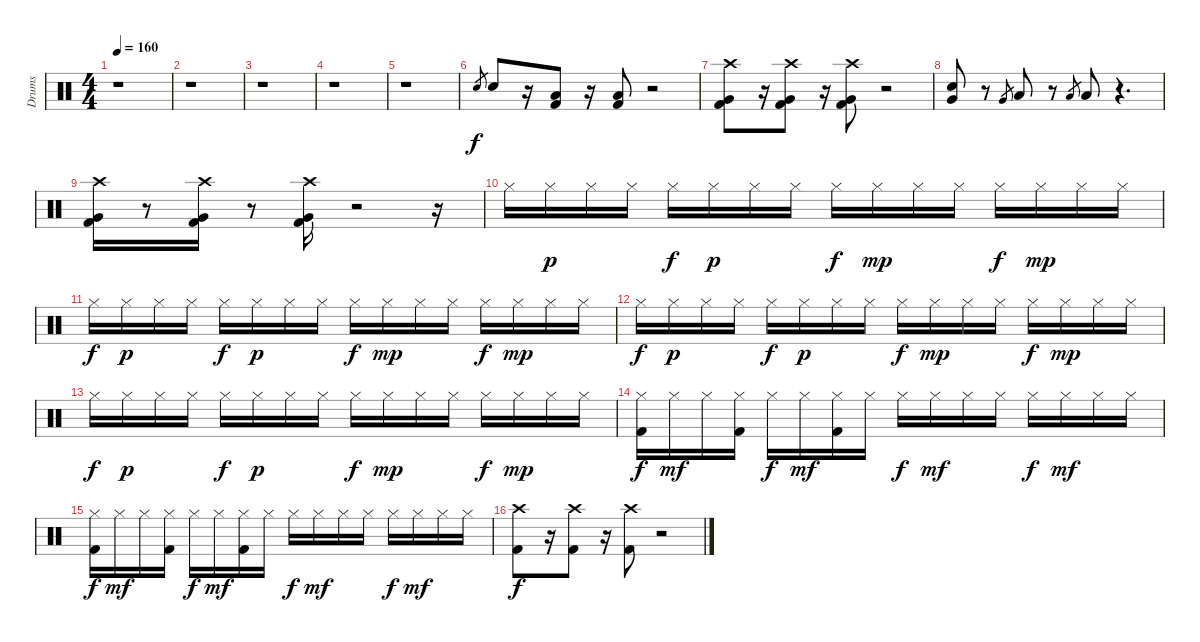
\track ("Drums" "Drums") {instrument percussion}
\staff {score}
\articulation defaults
\ts (4 4)
\tempo 160
\clef neutral
\ks c
r.1{dy f} |
r.1 |
r.1 |
r.1 |
r.1 |
"Snare (hit) 2".8{gr} "Snare (hit) 2".8 r.16 ("Kick (hit) 2" "Low Tom (hit)").8 r.16 ("Kick (hit) 2" "Low Floor Tom (hit)").8 r.2 |
("Kick (hit) 2" "Very Low Tom (hit)" "Crash high (hit)").8 r.16 ("Kick (hit) 2" "Very Low Tom (hit)" "Crash high (hit)").8 r.16 ("Kick (hit) 2" "Very Low Tom (hit)" "Crash high (hit)").8 r.2 |
("Snare (hit) 2" "Very Low Tom (hit)").8 r.8 "Very Low Tom (hit)".8{gr} "Low Tom (hit)".8 r.8 "Low Floor Tom (hit)".8{gr} "Low Tom (hit)".8 r.4{d} |
("Very Low Tom (hit)" "Crash high (hit)" "Kick (hit) 2").16 r.8 ("Crash high (hit)" "Kick (hit) 2" "Very Low Tom (hit)").16 r.8 ("Crash high (hit)" "Kick (hit) 2" "Very Low Tom (hit)").16 r.2 r.16 |
"Hi-Hat (closed)".16 "Hi-Hat (closed)".16{dy p} "Hi-Hat (closed)".16 "Hi-Hat (closed)".16 "Hi-Hat (closed)".16{dy f} "Hi-Hat (closed)".16{dy p} "Hi-Hat (closed)".16 "Hi-Hat (closed)".16 "Hi-Hat (closed)".16{dy f} "Hi-Hat (closed)".16{dy mp} "Hi-Hat (closed)".16 "Hi-Hat (closed)".16 "Hi-Hat (closed)".16{dy f} "Hi-Hat (closed)".16{dy mp} "Hi-Hat (closed)".16 "Hi-Hat (closed)".16 |
"Hi-Hat (closed)".16{dy f} "Hi-Hat (closed)".16{dy p} "Hi-Hat (closed)".16 "Hi-Hat (closed)".16 "Hi-Hat (closed)".16{dy f} "Hi-Hat (closed)".16{dy p} "Hi-Hat (closed)".16 "Hi-Hat (closed)".16 "Hi-Hat (closed)".16{dy f} "Hi-Hat (closed)".16{dy mp} "Hi-Hat (closed)".16 "Hi-Hat (closed)".16 "Hi-Hat (closed)".16{dy f} "Hi-Hat (closed)".16{dy mp} "Hi-Hat (closed)".16 "Hi-Hat (closed)".16 |
"Hi-Hat (closed)".16{dy f} "Hi-Hat (closed)".16{dy p} "Hi-Hat (closed)".16 "Hi-Hat (closed)".16 "Hi-Hat (closed)".16{dy f} "Hi-Hat (closed)".16{dy p} "Hi-Hat (closed)".16 "Hi-Hat (closed)".16 "Hi-Hat (closed)".16{dy f} "Hi-Hat (closed)".16{dy mp} "Hi-Hat (closed)".16 "Hi-Hat (closed)".16 "Hi-Hat (closed)".16{dy f} "Hi-Hat (closed)".16{dy mp} "Hi-Hat (closed)".16 "Hi-Hat (closed)".16 |
"Hi-Hat (closed)".16{dy f} "Hi-Hat (closed)".16{dy p} "Hi-Hat (closed)".16 "Hi-Hat (closed)".16 "Hi-Hat (closed)".16{dy f} "Hi-Hat (closed)".16{dy p} "Hi-Hat (closed)".16 "Hi-Hat (closed)".16 "Hi-Hat (closed)".16{dy f} "Hi-Hat (closed)".16{dy mp} "Hi-Hat (closed)".16 "Hi-Hat (closed)".16 "Hi-Hat (closed)".16{dy f} "Hi-Hat (closed)".16{dy mp} "Hi-Hat (closed)".16 "Hi-Hat (closed)".16 |
("Kick (hit) 2" "Hi-Hat (closed)").16{dy f} "Hi-Hat (closed)".16{dy mf} "Hi-Hat (closed)".16 ("Kick (hit) 2" "Hi-Hat (closed)").16 "Hi-Hat (closed)".16{dy f} "Hi-Hat (closed)".16{dy mf} ("Kick (hit) 2" "Hi-Hat (closed)").16 "Hi-Hat (closed)".16 "Hi-Hat (closed)".16{dy f} "Hi-Hat (closed)".16{dy mf} "Hi-Hat (closed)".16 "Hi-Hat (closed)".16 "Hi-Hat (closed)".16{dy f} "Hi-Hat (closed)".16{dy mf} "Hi-Hat (closed)".16 "Hi-Hat (closed)".16 |
("Kick (hit) 2" "Hi-Hat (closed)").16{dy f} "Hi-Hat (closed)".16{dy mf} "Hi-Hat (closed)".16 ("Kick (hit) 2" "Hi-Hat (closed)").16 "Hi-Hat (closed)".16{dy f} "Hi-Hat (closed)".16{dy mf} ("Kick (hit) 2" "Hi-Hat (closed)").16 "Hi-Hat (closed)".16 "Hi-Hat (closed)".16{dy f} "Hi-Hat (closed)".16{dy mf} "Hi-Hat (closed)".16 "Hi-Hat (closed)".16 "Hi-Hat (closed)".16{dy f} "Hi-Hat (closed)".16{dy mf} "Hi-Hat (closed)".16 "Hi-Hat (closed)".16 |
("Kick (hit) 2" "Crash high (hit)").8{dy f} r.16 ("Kick (hit) 2" "Crash high (hit)").8 r.16 ("Kick (hit) 2" "Crash high (hit)").8 r.2
